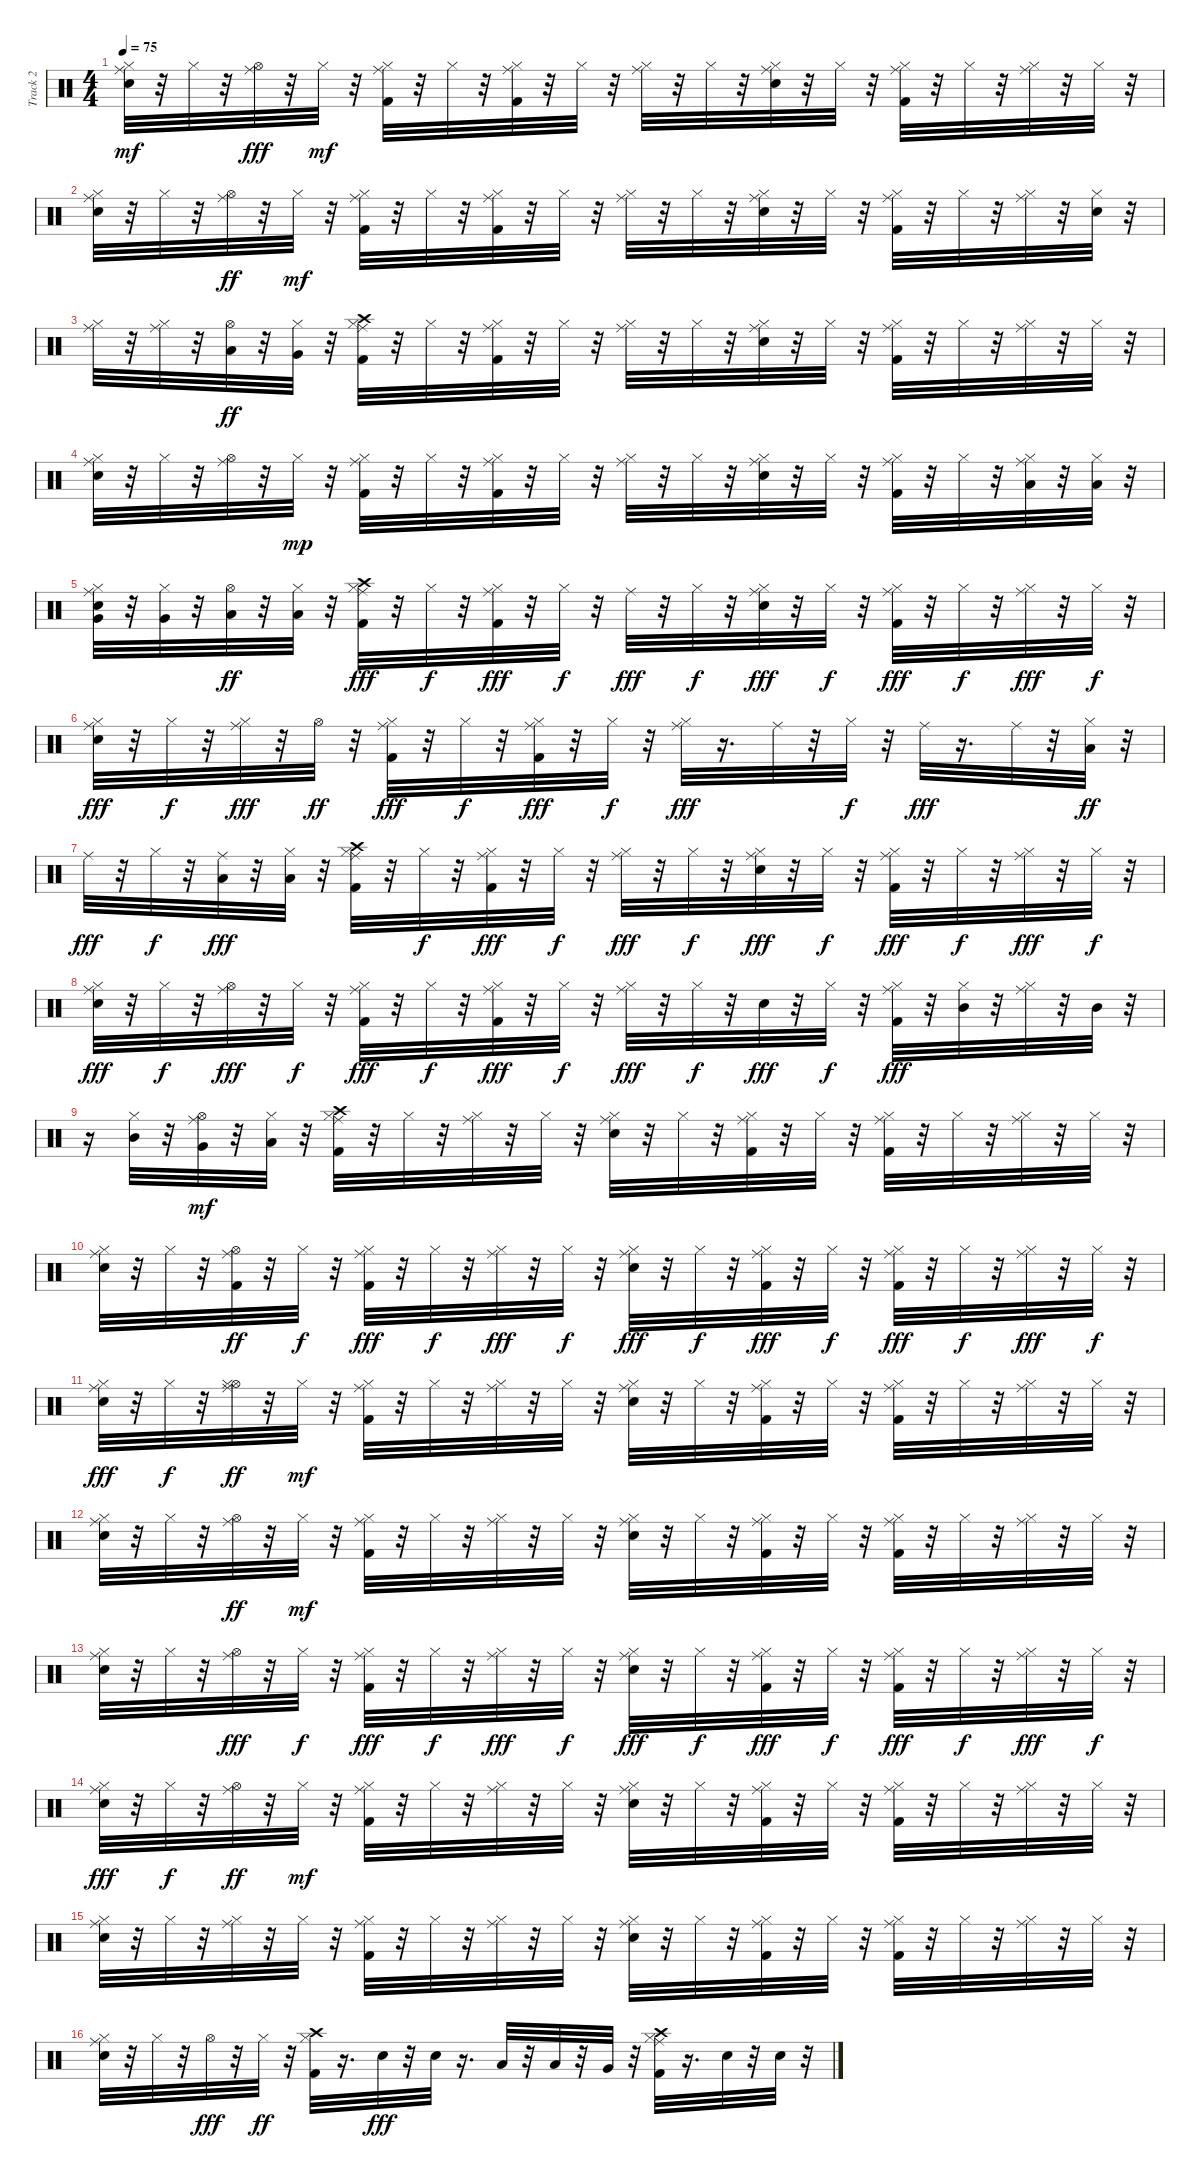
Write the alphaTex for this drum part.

\track ("Track 2" "Track 2") {instrument percussion}
\staff {score}
\articulation defaults
\ts (4 4)
\tempo 75
\clef neutral
\ks c
("Snare (hit) 2" "Ride (middle)" "Hi-Hat (closed)").32{dy mf} r.32 "Hi-Hat (closed)".32 r.32 ("Ride (middle)" "Hi-Hat (open)").32{dy fff} r.32 "Hi-Hat (closed)".32{dy mf} r.32 ("Kick (hit) 2" "Ride (middle)" "Hi-Hat (closed)").32 r.32 "Hi-Hat (closed)".32 r.32 ("Kick (hit) 2" "Ride (middle)" "Hi-Hat (closed)").32 r.32 "Hi-Hat (closed)".32 r.32 ("Ride (middle)" "Hi-Hat (closed)").32 r.32 "Hi-Hat (closed)".32 r.32 ("Snare (hit) 2" "Ride (middle)" "Hi-Hat (closed)").32 r.32 "Hi-Hat (closed)".32 r.32 ("Kick (hit) 2" "Ride (middle)" "Hi-Hat (closed)").32 r.32 "Hi-Hat (closed)".32 r.32 ("Ride (middle)" "Hi-Hat (closed)").32 r.32 "Hi-Hat (closed)".32 r.32 |
("Snare (hit) 2" "Ride (middle)" "Hi-Hat (closed)").32 r.32 "Hi-Hat (closed)".32 r.32 ("Ride (middle)" "Hi-Hat (open)").32{dy ff} r.32 "Hi-Hat (closed)".32{dy mf} r.32 ("Kick (hit) 2" "Ride (middle)" "Hi-Hat (closed)").32 r.32 "Hi-Hat (closed)".32 r.32 ("Kick (hit) 2" "Ride (middle)" "Hi-Hat (closed)").32 r.32 "Hi-Hat (closed)".32 r.32 ("Ride (middle)" "Hi-Hat (closed)").32 r.32 "Hi-Hat (closed)".32 r.32 ("Snare (hit) 2" "Ride (middle)" "Hi-Hat (closed)").32 r.32 "Hi-Hat (closed)".32 r.32 ("Kick (hit) 2" "Ride (middle)" "Hi-Hat (closed)").32 r.32 "Hi-Hat (closed)".32 r.32 ("Ride (middle)" "Hi-Hat (closed)").32 r.32 ("Snare (hit) 2" "Hi-Hat (closed)").32 r.32 |
("Ride (middle)" "Hi-Hat (closed)").32 r.32 ("Ride (middle)" "Hi-Hat (closed)").32 r.32 ("Low Tom (hit)" "Hi-Hat (open)").32{dy ff} r.32 ("Very Low Tom (hit)" "Hi-Hat (closed)").32 r.32 ("Ride (middle)" "Kick (hit) 2" "Crash high (hit)" "Hi-Hat (closed)").32 r.32 "Hi-Hat (closed)".32 r.32 ("Ride (middle)" "Kick (hit) 2" "Hi-Hat (closed)").32 r.32 "Hi-Hat (closed)".32 r.32 ("Ride (middle)" "Hi-Hat (closed)").32 r.32 "Hi-Hat (closed)".32 r.32 ("Snare (hit) 2" "Ride (middle)" "Hi-Hat (closed)").32 r.32 "Hi-Hat (closed)".32 r.32 ("Kick (hit) 2" "Ride (middle)" "Hi-Hat (closed)").32 r.32 "Hi-Hat (closed)".32 r.32 ("Ride (middle)" "Hi-Hat (closed)").32 r.32 "Hi-Hat (closed)".32 r.32 |
("Snare (hit) 2" "Ride (middle)" "Hi-Hat (closed)").32 r.32 "Hi-Hat (closed)".32 r.32 ("Ride (middle)" "Hi-Hat (open)").32 r.32 "Hi-Hat (closed)".32{dy mp} r.32 ("Ride (middle)" "Kick (hit) 2" "Hi-Hat (closed)").32 r.32 "Hi-Hat (closed)".32 r.32 ("Ride (middle)" "Kick (hit) 2" "Hi-Hat (closed)").32 r.32 "Hi-Hat (closed)".32 r.32 ("Ride (middle)" "Hi-Hat (closed)").32 r.32 "Hi-Hat (closed)".32 r.32 ("Snare (hit) 2" "Ride (middle)" "Hi-Hat (closed)").32 r.32 "Hi-Hat (closed)".32 r.32 ("Kick (hit) 2" "Ride (middle)" "Hi-Hat (closed)").32 r.32 "Hi-Hat (closed)".32 r.32 ("Ride (middle)" "Low Tom (hit)" "Hi-Hat (closed)").32 r.32 ("Low Tom (hit)" "Hi-Hat (closed)").32 r.32 |
("Snare (hit) 2" "Ride (middle)" "Very Low Tom (hit)" "Hi-Hat (closed)").32 r.32 ("Very Low Tom (hit)" "Hi-Hat (closed)").32 r.32 ("Low Floor Tom (hit)" "Hi-Hat (open)").32{dy ff} r.32 ("Low Floor Tom (hit)" "Hi-Hat (closed)").32 r.32 ("Kick (hit) 2" "Ride (middle)" "Crash high (hit)" "Hi-Hat (closed)").32{dy fff} r.32 "Hi-Hat (closed)".32{dy f} r.32 ("Kick (hit) 2" "Ride (middle)" "Hi-Hat (closed)").32{dy fff} r.32 "Hi-Hat (closed)".32{dy f} r.32 "Ride (middle)".32{dy fff} r.32 "Hi-Hat (closed)".32{dy f} r.32 ("Ride (middle)" "Snare (hit) 2" "Hi-Hat (closed)").32{dy fff} r.32 "Hi-Hat (closed)".32{dy f} r.32 ("Ride (middle)" "Kick (hit) 2" "Hi-Hat (closed)").32{dy fff} r.32 "Hi-Hat (closed)".32{dy f} r.32 ("Ride (middle)" "Hi-Hat (closed)").32{dy fff} r.32 "Hi-Hat (closed)".32{dy f} r.32 |
("Ride (middle)" "Snare (hit) 2" "Hi-Hat (closed)").32{dy fff} r.32 "Hi-Hat (closed)".32{dy f} r.32 ("Ride (middle)" "Hi-Hat (closed)").32{dy fff} r.32 "Hi-Hat (open)".32{dy ff} r.32 ("Kick (hit) 2" "Ride (middle)" "Hi-Hat (closed)").32{dy fff} r.32 "Hi-Hat (closed)".32{dy f} r.32 ("Kick (hit) 2" "Ride (middle)" "Hi-Hat (closed)").32{dy fff} r.32 "Hi-Hat (closed)".32{dy f} r.32 ("Ride (middle)" "Hi-Hat (closed)").32{dy fff} r.16{d} "Ride (middle)".32 r.32 "Hi-Hat (closed)".32{dy f} r.32 "Ride (middle)".32{dy fff} r.16{d} "Ride (middle)".32 r.32 ("Low Tom (hit)" "Hi-Hat (closed)").32{dy ff} r.32 |
"Ride (middle)".32{dy fff} r.32 "Hi-Hat (closed)".32{dy f} r.32 ("Ride (middle)" "Low Floor Tom (hit)").32{dy fff} r.32 ("Low Floor Tom (hit)" "Hi-Hat (closed)").32 r.32 ("Kick (hit) 2" "Ride (middle)" "Crash high (hit)" "Hi-Hat (closed)").32 r.32 "Hi-Hat (closed)".32{dy f} r.32 ("Kick (hit) 2" "Ride (middle)" "Hi-Hat (closed)").32{dy fff} r.32 "Hi-Hat (closed)".32{dy f} r.32 ("Ride (middle)" "Hi-Hat (closed)").32{dy fff} r.32 "Hi-Hat (closed)".32{dy f} r.32 ("Ride (middle)" "Snare (hit) 2" "Hi-Hat (closed)").32{dy fff} r.32 "Hi-Hat (closed)".32{dy f} r.32 ("Ride (middle)" "Kick (hit) 2" "Hi-Hat (closed)").32{dy fff} r.32 "Hi-Hat (closed)".32{dy f} r.32 ("Ride (middle)" "Hi-Hat (closed)").32{dy fff} r.32 "Hi-Hat (closed)".32{dy f} r.32 |
("Snare (hit) 2" "Ride (middle)" "Hi-Hat (closed)").32{dy fff} r.32 "Hi-Hat (closed)".32{dy f} r.32 ("Ride (middle)" "Hi-Hat (open)").32{dy fff} r.32 "Hi-Hat (closed)".32{dy f} r.32 ("Kick (hit) 2" "Ride (middle)" "Hi-Hat (closed)").32{dy fff} r.32 "Hi-Hat (closed)".32{dy f} r.32 ("Ride (middle)" "Kick (hit) 2" "Hi-Hat (closed)").32{dy fff} r.32 "Hi-Hat (closed)".32{dy f} r.32 ("Ride (middle)" "Hi-Hat (closed)").32{dy fff} r.32 "Hi-Hat (closed)".32{dy f} r.32 "Snare (hit) 2".32{dy fff} r.32 "Hi-Hat (closed)".32{dy f} r.32 ("Ride (middle)" "Kick (hit) 2" "Hi-Hat (closed)").32{dy fff} r.32 ("Mid Tom (hit)" "Hi-Hat (closed)").32 r.32 ("Ride (middle)" "Hi-Hat (closed)").32 r.32 "Mid Tom (hit)".32 r.32 |
r.16 ("Mid Tom (hit)" "Hi-Hat (closed)").32 r.32 ("Ride (middle)" "Very Low Tom (hit)" "Hi-Hat (open)").32{dy mf} r.32 ("Low Floor Tom (hit)" "Hi-Hat (closed)").32 r.32 ("Kick (hit) 2" "Ride (middle)" "Crash high (hit)" "Hi-Hat (closed)").32 r.32 "Hi-Hat (closed)".32 r.32 ("Ride (middle)" "Hi-Hat (closed)").32 r.32 "Hi-Hat (closed)".32 r.32 ("Snare (hit) 2" "Ride (middle)" "Hi-Hat (closed)").32 r.32 "Hi-Hat (closed)".32 r.32 ("Ride (middle)" "Kick (hit) 2" "Hi-Hat (closed)").32 r.32 "Hi-Hat (closed)".32 r.32 ("Kick (hit) 2" "Ride (middle)" "Hi-Hat (closed)").32 r.32 "Hi-Hat (closed)".32 r.32 ("Ride (middle)" "Hi-Hat (closed)").32 r.32 "Hi-Hat (closed)".32 r.32 |
("Snare (hit) 2" "Ride (middle)" "Hi-Hat (closed)").32 r.32 "Hi-Hat (closed)".32 r.32 ("Kick (hit) 2" "Ride (middle)" "Hi-Hat (open)").32{dy ff} r.32 "Hi-Hat (closed)".32{dy f} r.32 ("Kick (hit) 2" "Ride (middle)" "Hi-Hat (closed)").32{dy fff} r.32 "Hi-Hat (closed)".32{dy f} r.32 ("Ride (middle)" "Hi-Hat (closed)").32{dy fff} r.32 "Hi-Hat (closed)".32{dy f} r.32 ("Snare (hit) 2" "Ride (middle)" "Hi-Hat (closed)").32{dy fff} r.32 "Hi-Hat (closed)".32{dy f} r.32 ("Kick (hit) 2" "Ride (middle)" "Hi-Hat (closed)").32{dy fff} r.32 "Hi-Hat (closed)".32{dy f} r.32 ("Kick (hit) 2" "Ride (middle)" "Hi-Hat (closed)").32{dy fff} r.32 "Hi-Hat (closed)".32{dy f} r.32 ("Ride (middle)" "Hi-Hat (closed)").32{dy fff} r.32 "Hi-Hat (closed)".32{dy f} r.32 |
("Ride (middle)" "Snare (hit) 2" "Hi-Hat (closed)").32{dy fff} r.32 "Hi-Hat (closed)".32{dy f} r.32 ("Ride (middle)" "Hi-Hat (open)" "Hi-Hat (closed)").32{dy ff} r.32 "Hi-Hat (closed)".32{dy mf} r.32 ("Ride (middle)" "Kick (hit) 2" "Hi-Hat (closed)").32 r.32 "Hi-Hat (closed)".32 r.32 ("Ride (middle)" "Hi-Hat (closed)").32 r.32 "Hi-Hat (closed)".32 r.32 ("Snare (hit) 2" "Ride (middle)" "Hi-Hat (closed)").32 r.32 "Hi-Hat (closed)".32 r.32 ("Kick (hit) 2" "Ride (middle)" "Hi-Hat (closed)").32 r.32 "Hi-Hat (closed)".32 r.32 ("Kick (hit) 2" "Ride (middle)" "Hi-Hat (closed)").32 r.32 "Hi-Hat (closed)".32 r.32 ("Ride (middle)" "Hi-Hat (closed)").32 r.32 "Hi-Hat (closed)".32 r.32 |
("Snare (hit) 2" "Ride (middle)" "Hi-Hat (closed)").32 r.32 "Hi-Hat (closed)".32 r.32 ("Ride (middle)" "Hi-Hat (open)").32{dy ff} r.32 "Hi-Hat (closed)".32{dy mf} r.32 ("Ride (middle)" "Kick (hit) 2" "Hi-Hat (closed)").32 r.32 "Hi-Hat (closed)".32 r.32 ("Ride (middle)" "Hi-Hat (closed)").32 r.32 "Hi-Hat (closed)".32 r.32 ("Ride (middle)" "Snare (hit) 2" "Hi-Hat (closed)").32 r.32 "Hi-Hat (closed)".32 r.32 ("Ride (middle)" "Kick (hit) 2" "Hi-Hat (closed)").32 r.32 "Hi-Hat (closed)".32 r.32 ("Kick (hit) 2" "Ride (middle)" "Hi-Hat (closed)").32 r.32 "Hi-Hat (closed)".32 r.32 ("Ride (middle)" "Hi-Hat (closed)").32 r.32 "Hi-Hat (closed)".32 r.32 |
("Snare (hit) 2" "Ride (middle)" "Hi-Hat (closed)").32 r.32 "Hi-Hat (closed)".32 r.32 ("Ride (middle)" "Hi-Hat (open)").32{dy fff} r.32 "Hi-Hat (closed)".32{dy f} r.32 ("Kick (hit) 2" "Ride (middle)" "Hi-Hat (closed)").32{dy fff} r.32 "Hi-Hat (closed)".32{dy f} r.32 ("Ride (middle)" "Hi-Hat (closed)").32{dy fff} r.32 "Hi-Hat (closed)".32{dy f} r.32 ("Snare (hit) 2" "Ride (middle)" "Hi-Hat (closed)").32{dy fff} r.32 "Hi-Hat (closed)".32{dy f} r.32 ("Ride (middle)" "Kick (hit) 2" "Hi-Hat (closed)").32{dy fff} r.32 "Hi-Hat (closed)".32{dy f} r.32 ("Ride (middle)" "Kick (hit) 2" "Hi-Hat (closed)").32{dy fff} r.32 "Hi-Hat (closed)".32{dy f} r.32 ("Ride (middle)" "Hi-Hat (closed)").32{dy fff} r.32 "Hi-Hat (closed)".32{dy f} r.32 |
("Snare (hit) 2" "Ride (middle)" "Hi-Hat (closed)").32{dy fff} r.32 "Hi-Hat (closed)".32{dy f} r.32 ("Ride (middle)" "Hi-Hat (open)").32{dy ff} r.32 "Hi-Hat (closed)".32{dy mf} r.32 ("Kick (hit) 2" "Ride (middle)" "Hi-Hat (closed)").32 r.32 "Hi-Hat (closed)".32 r.32 ("Ride (middle)" "Hi-Hat (closed)").32 r.32 "Hi-Hat (closed)".32 r.32 ("Ride (middle)" "Snare (hit) 2" "Hi-Hat (closed)").32 r.32 "Hi-Hat (closed)".32 r.32 ("Ride (middle)" "Kick (hit) 2" "Hi-Hat (closed)").32 r.32 "Hi-Hat (closed)".32 r.32 ("Kick (hit) 2" "Ride (middle)" "Hi-Hat (closed)").32 r.32 "Hi-Hat (closed)".32 r.32 ("Ride (middle)" "Hi-Hat (closed)").32 r.32 "Hi-Hat (closed)".32 r.32 |
("Snare (hit) 2" "Ride (middle)" "Hi-Hat (closed)").32 r.32 "Hi-Hat (closed)".32 r.32 ("Ride (middle)" "Hi-Hat (closed)").32 r.32 "Hi-Hat (closed)".32 r.32 ("Kick (hit) 2" "Ride (middle)" "Hi-Hat (closed)").32 r.32 "Hi-Hat (closed)".32 r.32 ("Ride (middle)" "Hi-Hat (closed)").32 r.32 "Hi-Hat (closed)".32 r.32 ("Snare (hit) 2" "Ride (middle)" "Hi-Hat (closed)").32 r.32 "Hi-Hat (closed)".32 r.32 ("Kick (hit) 2" "Ride (middle)" "Hi-Hat (closed)").32 r.32 "Hi-Hat (closed)".32 r.32 ("Kick (hit) 2" "Ride (middle)" "Hi-Hat (closed)").32 r.32 "Hi-Hat (closed)".32 r.32 ("Ride (middle)" "Hi-Hat (closed)").32 r.32 "Hi-Hat (closed)".32 r.32 |
("Snare (hit) 2" "Ride (middle)" "Hi-Hat (closed)").32 r.32 "Hi-Hat (closed)".32 r.32 "Hi-Hat (open)".32{dy fff} r.32 "Hi-Hat (closed)".32{dy ff} r.32 ("Kick (hit) 2" "Crash high (hit)" "Hi-Hat (closed)").32 r.16{d} "Electric Snare (hit)".32{dy fff} r.32 "Electric Snare (hit)".32 r.16{d} "Low Tom (hit)".32 r.32 "Low Tom (hit)".32 r.32 "Very Low Tom (hit)".32 r.32 ("Kick (hit) 2" "Ride (middle)" "Crash high (hit)" "Hi-Hat (closed)").32 r.16{d} "Electric Snare (hit)".32 r.32 "Electric Snare (hit)".32 r.32
